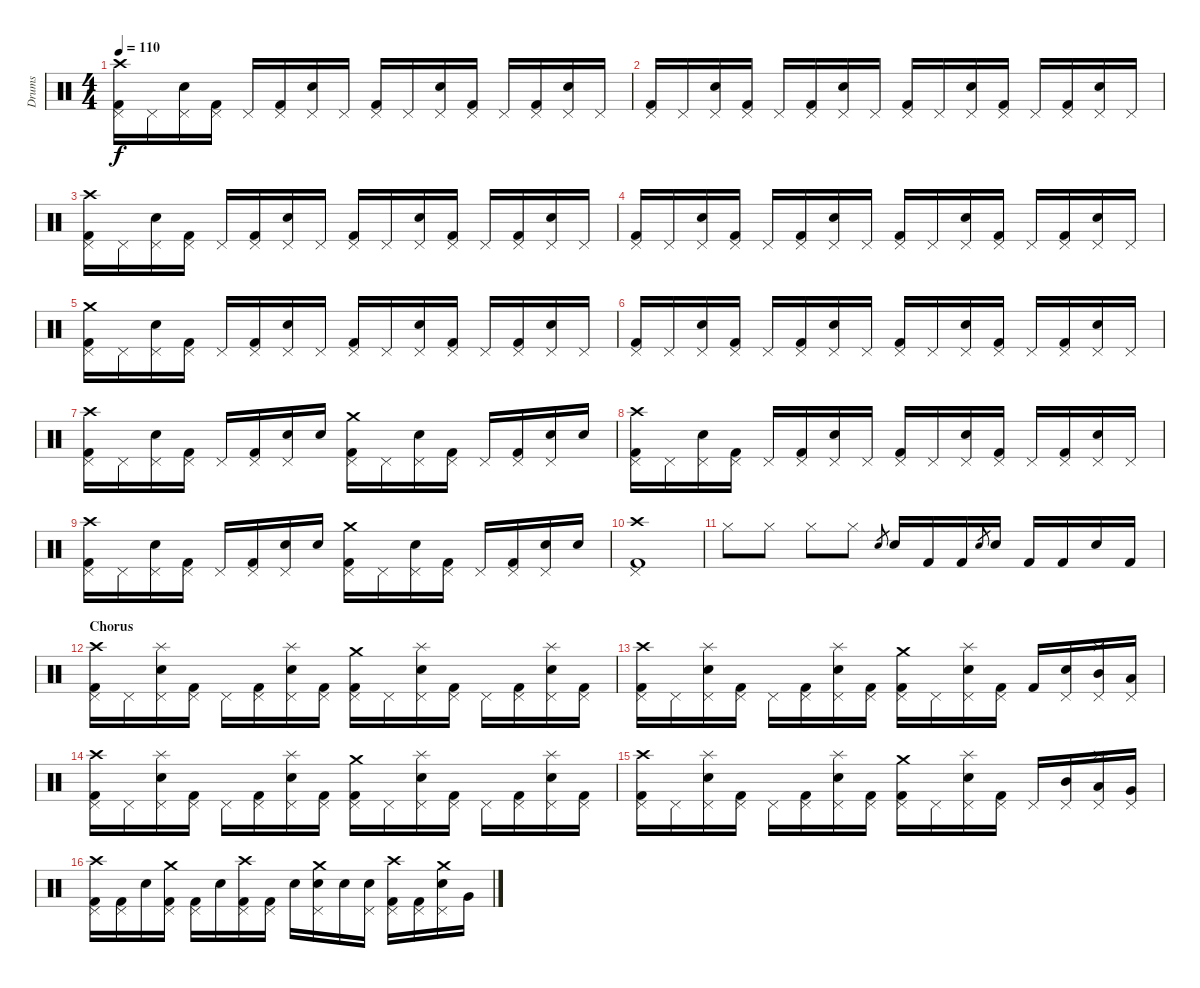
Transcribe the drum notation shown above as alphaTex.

\track ("Drums" "Drums") {instrument percussion}
\staff {score}
\articulation defaults
\ts (4 4)
\tempo 110
\clef neutral
\ks c
("Kick (hit) 2" "Pedal Hi-Hat (hit)" "Crash high (hit)").16{dy f} "Pedal Hi-Hat (hit)".16 ("Snare (hit) 2" "Pedal Hi-Hat (hit)").16 ("Kick (hit) 2" "Pedal Hi-Hat (hit)").16 "Pedal Hi-Hat (hit)".16 ("Kick (hit) 2" "Pedal Hi-Hat (hit)").16 ("Snare (hit) 2" "Pedal Hi-Hat (hit)").16 "Pedal Hi-Hat (hit)".16 ("Kick (hit) 2" "Pedal Hi-Hat (hit)").16 "Pedal Hi-Hat (hit)".16 ("Snare (hit) 2" "Pedal Hi-Hat (hit)").16 ("Kick (hit) 2" "Pedal Hi-Hat (hit)").16 "Pedal Hi-Hat (hit)".16 ("Kick (hit) 2" "Pedal Hi-Hat (hit)").16 ("Snare (hit) 2" "Pedal Hi-Hat (hit)").16 "Pedal Hi-Hat (hit)".16 |
("Kick (hit) 2" "Pedal Hi-Hat (hit)").16 "Pedal Hi-Hat (hit)".16 ("Snare (hit) 2" "Pedal Hi-Hat (hit)").16 ("Kick (hit) 2" "Pedal Hi-Hat (hit)").16 "Pedal Hi-Hat (hit)".16 ("Kick (hit) 2" "Pedal Hi-Hat (hit)").16 ("Snare (hit) 2" "Pedal Hi-Hat (hit)").16 "Pedal Hi-Hat (hit)".16 ("Kick (hit) 2" "Pedal Hi-Hat (hit)").16 "Pedal Hi-Hat (hit)".16 ("Snare (hit) 2" "Pedal Hi-Hat (hit)").16 ("Kick (hit) 2" "Pedal Hi-Hat (hit)").16 "Pedal Hi-Hat (hit)".16 ("Kick (hit) 2" "Pedal Hi-Hat (hit)").16 ("Snare (hit) 2" "Pedal Hi-Hat (hit)").16 "Pedal Hi-Hat (hit)".16 |
("Kick (hit) 2" "Pedal Hi-Hat (hit)" "Crash high (hit)").16 "Pedal Hi-Hat (hit)".16 ("Snare (hit) 2" "Pedal Hi-Hat (hit)").16 ("Kick (hit) 2" "Pedal Hi-Hat (hit)").16 "Pedal Hi-Hat (hit)".16 ("Kick (hit) 2" "Pedal Hi-Hat (hit)").16 ("Snare (hit) 2" "Pedal Hi-Hat (hit)").16 "Pedal Hi-Hat (hit)".16 ("Kick (hit) 2" "Pedal Hi-Hat (hit)").16 "Pedal Hi-Hat (hit)".16 ("Snare (hit) 2" "Pedal Hi-Hat (hit)").16 ("Kick (hit) 2" "Pedal Hi-Hat (hit)").16 "Pedal Hi-Hat (hit)".16 ("Kick (hit) 2" "Pedal Hi-Hat (hit)").16 ("Snare (hit) 2" "Pedal Hi-Hat (hit)").16 "Pedal Hi-Hat (hit)".16 |
("Kick (hit) 2" "Pedal Hi-Hat (hit)").16 "Pedal Hi-Hat (hit)".16 ("Snare (hit) 2" "Pedal Hi-Hat (hit)").16 ("Kick (hit) 2" "Pedal Hi-Hat (hit)").16 "Pedal Hi-Hat (hit)".16 ("Kick (hit) 2" "Pedal Hi-Hat (hit)").16 ("Snare (hit) 2" "Pedal Hi-Hat (hit)").16 "Pedal Hi-Hat (hit)".16 ("Kick (hit) 2" "Pedal Hi-Hat (hit)").16 "Pedal Hi-Hat (hit)".16 ("Snare (hit) 2" "Pedal Hi-Hat (hit)").16 ("Kick (hit) 2" "Pedal Hi-Hat (hit)").16 "Pedal Hi-Hat (hit)".16 ("Kick (hit) 2" "Pedal Hi-Hat (hit)").16 ("Snare (hit) 2" "Pedal Hi-Hat (hit)").16 "Pedal Hi-Hat (hit)".16 |
("Kick (hit) 2" "Pedal Hi-Hat (hit)" "Crash medium (hit)").16 "Pedal Hi-Hat (hit)".16 ("Snare (hit) 2" "Pedal Hi-Hat (hit)").16 ("Kick (hit) 2" "Pedal Hi-Hat (hit)").16 "Pedal Hi-Hat (hit)".16 ("Kick (hit) 2" "Pedal Hi-Hat (hit)").16 ("Snare (hit) 2" "Pedal Hi-Hat (hit)").16 "Pedal Hi-Hat (hit)".16 ("Kick (hit) 2" "Pedal Hi-Hat (hit)").16 "Pedal Hi-Hat (hit)".16 ("Snare (hit) 2" "Pedal Hi-Hat (hit)").16 ("Kick (hit) 2" "Pedal Hi-Hat (hit)").16 "Pedal Hi-Hat (hit)".16 ("Kick (hit) 2" "Pedal Hi-Hat (hit)").16 ("Snare (hit) 2" "Pedal Hi-Hat (hit)").16 "Pedal Hi-Hat (hit)".16 |
("Kick (hit) 2" "Pedal Hi-Hat (hit)").16 "Pedal Hi-Hat (hit)".16 ("Snare (hit) 2" "Pedal Hi-Hat (hit)").16 ("Kick (hit) 2" "Pedal Hi-Hat (hit)").16 "Pedal Hi-Hat (hit)".16 ("Kick (hit) 2" "Pedal Hi-Hat (hit)").16 ("Snare (hit) 2" "Pedal Hi-Hat (hit)").16 "Pedal Hi-Hat (hit)".16 ("Kick (hit) 2" "Pedal Hi-Hat (hit)").16 "Pedal Hi-Hat (hit)".16 ("Snare (hit) 2" "Pedal Hi-Hat (hit)").16 ("Kick (hit) 2" "Pedal Hi-Hat (hit)").16 "Pedal Hi-Hat (hit)".16 ("Kick (hit) 2" "Pedal Hi-Hat (hit)").16 ("Snare (hit) 2" "Pedal Hi-Hat (hit)").16 "Pedal Hi-Hat (hit)".16 |
("Kick (hit) 2" "Pedal Hi-Hat (hit)" "Crash high (hit)").16 "Pedal Hi-Hat (hit)".16 ("Snare (hit) 2" "Pedal Hi-Hat (hit)").16 ("Kick (hit) 2" "Pedal Hi-Hat (hit)").16 "Pedal Hi-Hat (hit)".16 ("Kick (hit) 2" "Pedal Hi-Hat (hit)").16 ("Snare (hit) 2" "Pedal Hi-Hat (hit)").16 "Snare (hit) 2".16 ("Kick (hit) 2" "Pedal Hi-Hat (hit)" "Crash medium (hit)").16 "Pedal Hi-Hat (hit)".16 ("Snare (hit) 2" "Pedal Hi-Hat (hit)").16 ("Kick (hit) 2" "Pedal Hi-Hat (hit)").16 "Pedal Hi-Hat (hit)".16 ("Kick (hit) 2" "Pedal Hi-Hat (hit)").16 ("Snare (hit) 2" "Pedal Hi-Hat (hit)").16 "Snare (hit) 2".16 |
("Kick (hit) 2" "Pedal Hi-Hat (hit)" "Crash high (hit)").16 "Pedal Hi-Hat (hit)".16 ("Snare (hit) 2" "Pedal Hi-Hat (hit)").16 ("Kick (hit) 2" "Pedal Hi-Hat (hit)").16 "Pedal Hi-Hat (hit)".16 ("Kick (hit) 2" "Pedal Hi-Hat (hit)").16 ("Snare (hit) 2" "Pedal Hi-Hat (hit)").16 "Pedal Hi-Hat (hit)".16 ("Kick (hit) 2" "Pedal Hi-Hat (hit)").16 "Pedal Hi-Hat (hit)".16 ("Snare (hit) 2" "Pedal Hi-Hat (hit)").16 ("Kick (hit) 2" "Pedal Hi-Hat (hit)").16 "Pedal Hi-Hat (hit)".16 ("Kick (hit) 2" "Pedal Hi-Hat (hit)").16 ("Snare (hit) 2" "Pedal Hi-Hat (hit)").16 "Pedal Hi-Hat (hit)".16 |
("Kick (hit) 2" "Pedal Hi-Hat (hit)" "Crash high (hit)").16 "Pedal Hi-Hat (hit)".16 ("Snare (hit) 2" "Pedal Hi-Hat (hit)").16 ("Kick (hit) 2" "Pedal Hi-Hat (hit)").16 "Pedal Hi-Hat (hit)".16 ("Kick (hit) 2" "Pedal Hi-Hat (hit)").16 ("Snare (hit) 2" "Pedal Hi-Hat (hit)").16 "Snare (hit) 2".16 ("Kick (hit) 2" "Pedal Hi-Hat (hit)" "Crash medium (hit)").16 "Pedal Hi-Hat (hit)".16 ("Snare (hit) 2" "Pedal Hi-Hat (hit)").16 ("Kick (hit) 2" "Pedal Hi-Hat (hit)").16 "Pedal Hi-Hat (hit)".16 ("Kick (hit) 2" "Pedal Hi-Hat (hit)").16 ("Snare (hit) 2" "Pedal Hi-Hat (hit)").16 "Snare (hit) 2".16 |
("Kick (hit) 2" "Pedal Hi-Hat (hit)" "Crash high (hit)").1 |
"Hi-Hat (closed)".8 "Hi-Hat (closed)".8 "Hi-Hat (closed)".8 "Hi-Hat (closed)".8 "Snare (hit) 2".8{gr} "Snare (hit) 2".16 "Kick (hit) 2".16 "Kick (hit) 2".16 "Snare (hit) 2".8{gr} "Snare (hit) 2".16 "Kick (hit) 2".16 "Kick (hit) 2".16 "Snare (hit) 2".16 "Kick (hit) 2".16 |
\section ("" "Chorus")
("Kick (hit) 2" "Pedal Hi-Hat (hit)" "Crash high (hit)").16 "Pedal Hi-Hat (hit)".16 ("Snare (hit) 2" "Pedal Hi-Hat (hit)" "Splash (hit)").16 ("Kick (hit) 2" "Pedal Hi-Hat (hit)").16 "Pedal Hi-Hat (hit)".16 ("Kick (hit) 2" "Pedal Hi-Hat (hit)").16 ("Snare (hit) 2" "Pedal Hi-Hat (hit)" "Splash (hit)").16 ("Kick (hit) 2" "Pedal Hi-Hat (hit)").16 ("Kick (hit) 2" "Pedal Hi-Hat (hit)" "Crash medium (hit)").16 "Pedal Hi-Hat (hit)".16 ("Snare (hit) 2" "Pedal Hi-Hat (hit)" "Splash (hit)").16 ("Kick (hit) 2" "Pedal Hi-Hat (hit)").16 "Pedal Hi-Hat (hit)".16 ("Kick (hit) 2" "Pedal Hi-Hat (hit)").16 ("Snare (hit) 2" "Pedal Hi-Hat (hit)" "Splash (hit)").16 ("Kick (hit) 2" "Pedal Hi-Hat (hit)").16 |
("Kick (hit) 2" "Pedal Hi-Hat (hit)" "Crash high (hit)").16 "Pedal Hi-Hat (hit)".16 ("Snare (hit) 2" "Pedal Hi-Hat (hit)" "Splash (hit)").16 ("Kick (hit) 2" "Pedal Hi-Hat (hit)").16 "Pedal Hi-Hat (hit)".16 ("Kick (hit) 2" "Pedal Hi-Hat (hit)").16 ("Snare (hit) 2" "Pedal Hi-Hat (hit)" "Splash (hit)").16 ("Kick (hit) 2" "Pedal Hi-Hat (hit)").16 ("Kick (hit) 2" "Pedal Hi-Hat (hit)" "Crash medium (hit)").16 "Pedal Hi-Hat (hit)".16 ("Snare (hit) 2" "Pedal Hi-Hat (hit)" "Splash (hit)").16 ("Kick (hit) 2" "Pedal Hi-Hat (hit)").16 "Kick (hit) 2".16 ("Snare (hit) 2" "Pedal Hi-Hat (hit)").16 ("Mid Tom (hit)" "Pedal Hi-Hat (hit)" "Splash (hit)").16 ("Low Tom (hit)" "Pedal Hi-Hat (hit)").16 |
("Kick (hit) 2" "Pedal Hi-Hat (hit)" "Crash high (hit)").16 "Pedal Hi-Hat (hit)".16 ("Snare (hit) 2" "Pedal Hi-Hat (hit)" "Splash (hit)").16 ("Kick (hit) 2" "Pedal Hi-Hat (hit)").16 "Pedal Hi-Hat (hit)".16 ("Kick (hit) 2" "Pedal Hi-Hat (hit)").16 ("Snare (hit) 2" "Pedal Hi-Hat (hit)" "Splash (hit)").16 ("Kick (hit) 2" "Pedal Hi-Hat (hit)").16 ("Kick (hit) 2" "Pedal Hi-Hat (hit)" "Crash medium (hit)").16 "Pedal Hi-Hat (hit)".16 ("Snare (hit) 2" "Pedal Hi-Hat (hit)" "Splash (hit)").16 ("Kick (hit) 2" "Pedal Hi-Hat (hit)").16 "Pedal Hi-Hat (hit)".16 ("Kick (hit) 2" "Pedal Hi-Hat (hit)").16 ("Snare (hit) 2" "Pedal Hi-Hat (hit)" "Splash (hit)").16 ("Kick (hit) 2" "Pedal Hi-Hat (hit)").16 |
("Kick (hit) 2" "Pedal Hi-Hat (hit)" "Crash high (hit)").16 "Pedal Hi-Hat (hit)".16 ("Snare (hit) 2" "Pedal Hi-Hat (hit)" "Splash (hit)").16 ("Kick (hit) 2" "Pedal Hi-Hat (hit)").16 "Pedal Hi-Hat (hit)".16 ("Kick (hit) 2" "Pedal Hi-Hat (hit)").16 ("Snare (hit) 2" "Pedal Hi-Hat (hit)" "Splash (hit)").16 ("Kick (hit) 2" "Pedal Hi-Hat (hit)").16 ("Kick (hit) 2" "Pedal Hi-Hat (hit)" "Crash medium (hit)").16 "Pedal Hi-Hat (hit)".16 ("Snare (hit) 2" "Pedal Hi-Hat (hit)" "Splash (hit)").16 ("Kick (hit) 2" "Pedal Hi-Hat (hit)").16 "Pedal Hi-Hat (hit)".16 ("Mid Tom (hit)" "Pedal Hi-Hat (hit)").16 ("Low Tom (hit)" "Pedal Hi-Hat (hit)" "Splash (hit)").16 ("Very Low Tom (hit)" "Pedal Hi-Hat (hit)").16 |
("Kick (hit) 2" "Pedal Hi-Hat (hit)" "Crash high (hit)").16 ("Kick (hit) 2" "Pedal Hi-Hat (hit)").16 "Snare (hit) 2".16 ("Kick (hit) 2" "Pedal Hi-Hat (hit)" "Crash medium (hit)").16 ("Kick (hit) 2" "Pedal Hi-Hat (hit)").16 "Snare (hit) 2".16 ("Kick (hit) 2" "Pedal Hi-Hat (hit)" "Crash high (hit)").16 ("Kick (hit) 2" "Pedal Hi-Hat (hit)").16 "Snare (hit) 2".16 ("Snare (hit) 2" "Pedal Hi-Hat (hit)" "Crash medium (hit)").16 "Snare (hit) 2".16 ("Snare (hit) 2" "Pedal Hi-Hat (hit)").16 ("Kick (hit) 2" "Pedal Hi-Hat (hit)" "Crash high (hit)").16 ("Kick (hit) 2" "Pedal Hi-Hat (hit)").16 ("Snare (hit) 2" "Pedal Hi-Hat (hit)" "Crash medium (hit)").16 "Very Low Tom (hit)".16
